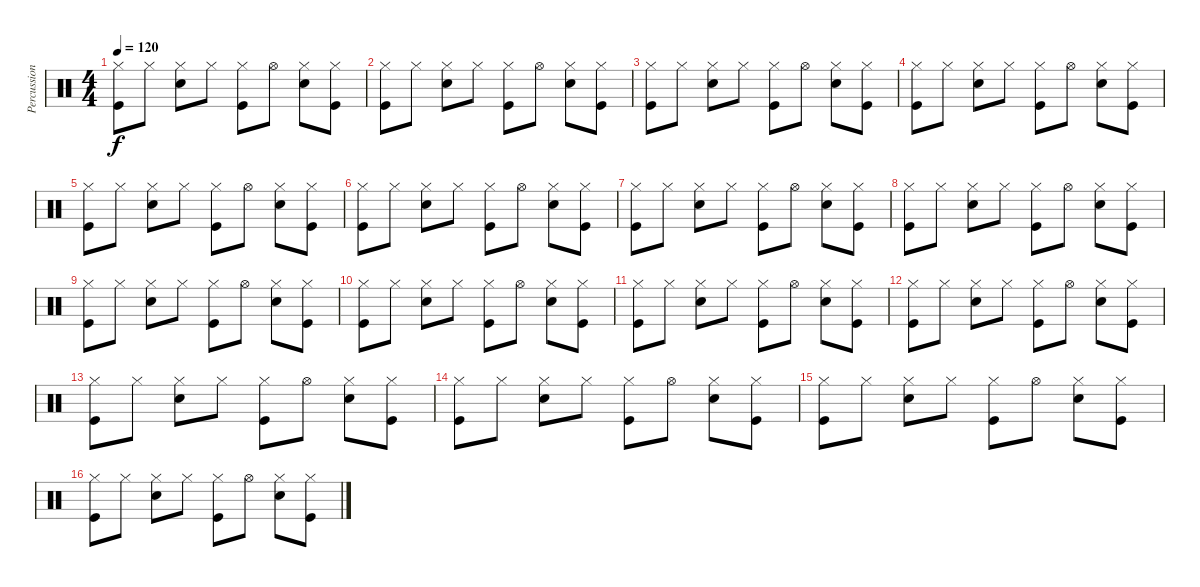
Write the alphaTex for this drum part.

\track ("Percussions" "Percussion") {instrument percussion}
\staff {score}
\articulation defaults
\ts (4 4)
\tempo 120
\clef neutral
\ks c
("Kick (hit)" "Hi-Hat (closed)").8{dy f} "Hi-Hat (closed)".8 ("Snare (hit) 2" "Hi-Hat (closed)").8 "Hi-Hat (closed)".8 ("Kick (hit)" "Hi-Hat (closed)").8 "Hi-Hat (open)".8 ("Snare (hit) 2" "Hi-Hat (closed)").8 ("Kick (hit)" "Hi-Hat (closed)").8 |
("Kick (hit)" "Hi-Hat (closed)").8 "Hi-Hat (closed)".8 ("Snare (hit) 2" "Hi-Hat (closed)").8 "Hi-Hat (closed)".8 ("Kick (hit)" "Hi-Hat (closed)").8 "Hi-Hat (open)".8 ("Snare (hit) 2" "Hi-Hat (closed)").8 ("Kick (hit)" "Hi-Hat (closed)").8 |
("Kick (hit)" "Hi-Hat (closed)").8 "Hi-Hat (closed)".8 ("Snare (hit) 2" "Hi-Hat (closed)").8 "Hi-Hat (closed)".8 ("Kick (hit)" "Hi-Hat (closed)").8 "Hi-Hat (open)".8 ("Snare (hit) 2" "Hi-Hat (closed)").8 ("Kick (hit)" "Hi-Hat (closed)").8 |
("Kick (hit)" "Hi-Hat (closed)").8 "Hi-Hat (closed)".8 ("Snare (hit) 2" "Hi-Hat (closed)").8 "Hi-Hat (closed)".8 ("Kick (hit)" "Hi-Hat (closed)").8 "Hi-Hat (open)".8 ("Snare (hit) 2" "Hi-Hat (closed)").8 ("Kick (hit)" "Hi-Hat (closed)").8 |
("Kick (hit)" "Hi-Hat (closed)").8 "Hi-Hat (closed)".8 ("Snare (hit) 2" "Hi-Hat (closed)").8 "Hi-Hat (closed)".8 ("Kick (hit)" "Hi-Hat (closed)").8 "Hi-Hat (open)".8 ("Snare (hit) 2" "Hi-Hat (closed)").8 ("Kick (hit)" "Hi-Hat (closed)").8 |
("Kick (hit)" "Hi-Hat (closed)").8 "Hi-Hat (closed)".8 ("Snare (hit) 2" "Hi-Hat (closed)").8 "Hi-Hat (closed)".8 ("Kick (hit)" "Hi-Hat (closed)").8 "Hi-Hat (open)".8 ("Snare (hit) 2" "Hi-Hat (closed)").8 ("Kick (hit)" "Hi-Hat (closed)").8 |
("Kick (hit)" "Hi-Hat (closed)").8 "Hi-Hat (closed)".8 ("Snare (hit) 2" "Hi-Hat (closed)").8 "Hi-Hat (closed)".8 ("Kick (hit)" "Hi-Hat (closed)").8 "Hi-Hat (open)".8 ("Snare (hit) 2" "Hi-Hat (closed)").8 ("Kick (hit)" "Hi-Hat (closed)").8 |
("Kick (hit)" "Hi-Hat (closed)").8 "Hi-Hat (closed)".8 ("Snare (hit) 2" "Hi-Hat (closed)").8 "Hi-Hat (closed)".8 ("Kick (hit)" "Hi-Hat (closed)").8 "Hi-Hat (open)".8 ("Snare (hit) 2" "Hi-Hat (closed)").8 ("Kick (hit)" "Hi-Hat (closed)").8 |
("Kick (hit)" "Hi-Hat (closed)").8 "Hi-Hat (closed)".8 ("Snare (hit) 2" "Hi-Hat (closed)").8 "Hi-Hat (closed)".8 ("Kick (hit)" "Hi-Hat (closed)").8 "Hi-Hat (open)".8 ("Snare (hit) 2" "Hi-Hat (closed)").8 ("Kick (hit)" "Hi-Hat (closed)").8 |
("Kick (hit)" "Hi-Hat (closed)").8 "Hi-Hat (closed)".8 ("Snare (hit) 2" "Hi-Hat (closed)").8 "Hi-Hat (closed)".8 ("Kick (hit)" "Hi-Hat (closed)").8 "Hi-Hat (open)".8 ("Snare (hit) 2" "Hi-Hat (closed)").8 ("Kick (hit)" "Hi-Hat (closed)").8 |
("Kick (hit)" "Hi-Hat (closed)").8 "Hi-Hat (closed)".8 ("Snare (hit) 2" "Hi-Hat (closed)").8 "Hi-Hat (closed)".8 ("Kick (hit)" "Hi-Hat (closed)").8 "Hi-Hat (open)".8 ("Snare (hit) 2" "Hi-Hat (closed)").8 ("Kick (hit)" "Hi-Hat (closed)").8 |
("Kick (hit)" "Hi-Hat (closed)").8 "Hi-Hat (closed)".8 ("Snare (hit) 2" "Hi-Hat (closed)").8 "Hi-Hat (closed)".8 ("Kick (hit)" "Hi-Hat (closed)").8 "Hi-Hat (open)".8 ("Snare (hit) 2" "Hi-Hat (closed)").8 ("Kick (hit)" "Hi-Hat (closed)").8 |
("Kick (hit)" "Hi-Hat (closed)").8 "Hi-Hat (closed)".8 ("Snare (hit) 2" "Hi-Hat (closed)").8 "Hi-Hat (closed)".8 ("Kick (hit)" "Hi-Hat (closed)").8 "Hi-Hat (open)".8 ("Snare (hit) 2" "Hi-Hat (closed)").8 ("Kick (hit)" "Hi-Hat (closed)").8 |
("Kick (hit)" "Hi-Hat (closed)").8 "Hi-Hat (closed)".8 ("Snare (hit) 2" "Hi-Hat (closed)").8 "Hi-Hat (closed)".8 ("Kick (hit)" "Hi-Hat (closed)").8 "Hi-Hat (open)".8 ("Snare (hit) 2" "Hi-Hat (closed)").8 ("Kick (hit)" "Hi-Hat (closed)").8 |
("Kick (hit)" "Hi-Hat (closed)").8 "Hi-Hat (closed)".8 ("Snare (hit) 2" "Hi-Hat (closed)").8 "Hi-Hat (closed)".8 ("Kick (hit)" "Hi-Hat (closed)").8 "Hi-Hat (open)".8 ("Snare (hit) 2" "Hi-Hat (closed)").8 ("Kick (hit)" "Hi-Hat (closed)").8 |
("Kick (hit)" "Hi-Hat (closed)").8 "Hi-Hat (closed)".8 ("Snare (hit) 2" "Hi-Hat (closed)").8 "Hi-Hat (closed)".8 ("Kick (hit)" "Hi-Hat (closed)").8 "Hi-Hat (open)".8 ("Snare (hit) 2" "Hi-Hat (closed)").8 ("Kick (hit)" "Hi-Hat (closed)").8
